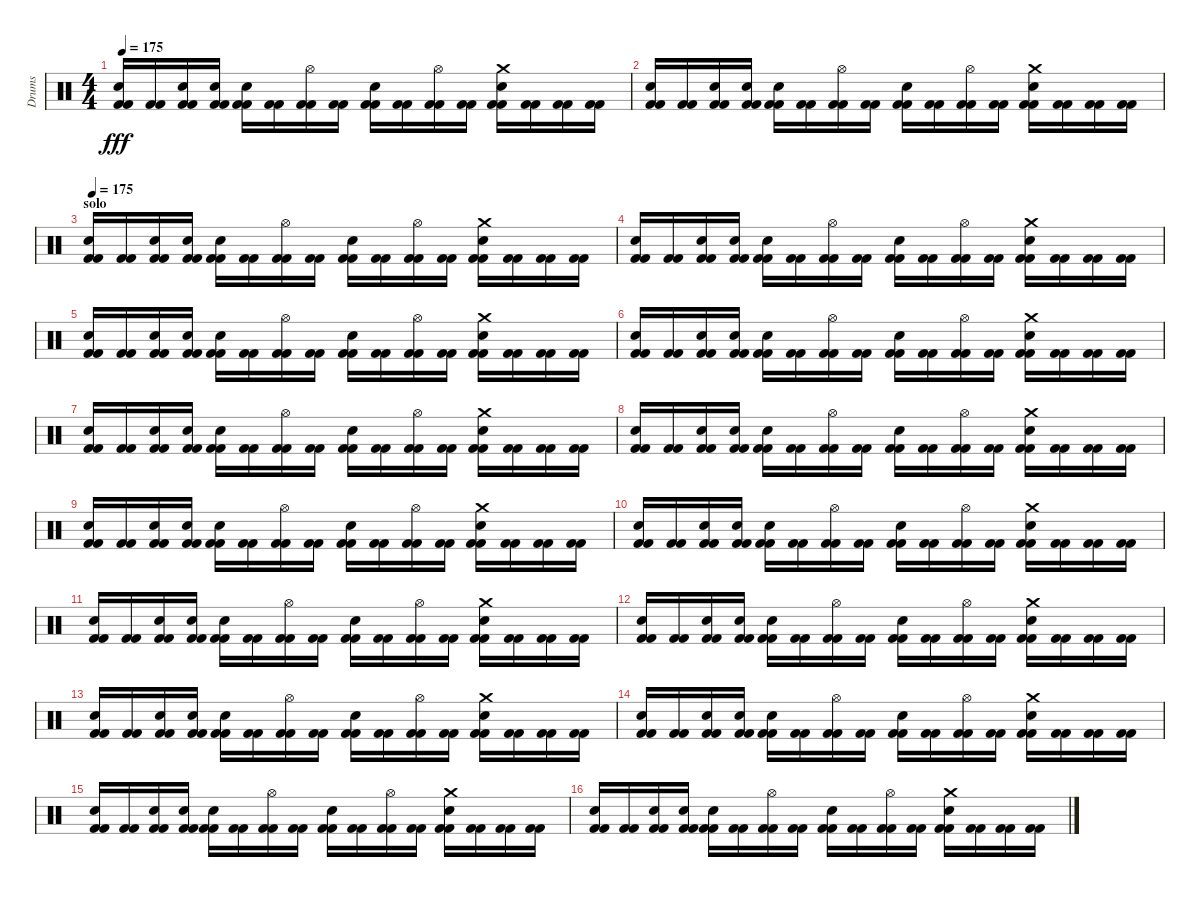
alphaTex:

\track ("Drums" "Drums") {instrument percussion}
\staff {score}
\articulation defaults
\ts (4 4)
\tempo 175
\clef neutral
\ks c
("Electric Snare (hit)" "Kick (hit) 2" "Kick (hit) 2").16{dy fff} ("Kick (hit) 2" "Kick (hit) 2").16 ("Electric Snare (hit)" "Kick (hit) 2" "Kick (hit) 2").16 ("Electric Snare (hit)" "Kick (hit) 2" "Kick (hit) 2").16 ("Electric Snare (hit)" "Kick (hit) 2" "Kick (hit) 2").16 ("Kick (hit) 2" "Kick (hit) 2").16 ("Hi-Hat (open)" "Kick (hit) 2" "Kick (hit) 2").16 ("Kick (hit) 2" "Kick (hit) 2").16 ("Electric Snare (hit)" "Kick (hit) 2" "Kick (hit) 2").16 ("Kick (hit) 2" "Kick (hit) 2").16 ("Hi-Hat (open)" "Kick (hit) 2" "Kick (hit) 2").16 ("Kick (hit) 2" "Kick (hit) 2").16 ("Crash medium (hit)" "Electric Snare (hit)" "Kick (hit) 2" "Kick (hit) 2").16 ("Kick (hit) 2" "Kick (hit) 2").16 ("Kick (hit) 2" "Kick (hit) 2").16 ("Kick (hit) 2" "Kick (hit) 2").16 |
("Electric Snare (hit)" "Kick (hit) 2" "Kick (hit) 2").16 ("Kick (hit) 2" "Kick (hit) 2").16 ("Electric Snare (hit)" "Kick (hit) 2" "Kick (hit) 2").16 ("Electric Snare (hit)" "Kick (hit) 2" "Kick (hit) 2").16 ("Electric Snare (hit)" "Kick (hit) 2" "Kick (hit) 2").16 ("Kick (hit) 2" "Kick (hit) 2").16 ("Hi-Hat (open)" "Kick (hit) 2" "Kick (hit) 2").16 ("Kick (hit) 2" "Kick (hit) 2").16 ("Electric Snare (hit)" "Kick (hit) 2" "Kick (hit) 2").16 ("Kick (hit) 2" "Kick (hit) 2").16 ("Hi-Hat (open)" "Kick (hit) 2" "Kick (hit) 2").16 ("Kick (hit) 2" "Kick (hit) 2").16 ("Crash medium (hit)" "Electric Snare (hit)" "Kick (hit) 2" "Kick (hit) 2").16 ("Kick (hit) 2" "Kick (hit) 2").16 ("Kick (hit) 2" "Kick (hit) 2").16 ("Kick (hit) 2" "Kick (hit) 2").16 |
\section ("" "solo")
\tempo 175
("Electric Snare (hit)" "Kick (hit) 2" "Kick (hit) 2").16 ("Kick (hit) 2" "Kick (hit) 2").16 ("Electric Snare (hit)" "Kick (hit) 2" "Kick (hit) 2").16 ("Electric Snare (hit)" "Kick (hit) 2" "Kick (hit) 2").16 ("Electric Snare (hit)" "Kick (hit) 2" "Kick (hit) 2").16 ("Kick (hit) 2" "Kick (hit) 2").16 ("Hi-Hat (open)" "Kick (hit) 2" "Kick (hit) 2").16 ("Kick (hit) 2" "Kick (hit) 2").16 ("Electric Snare (hit)" "Kick (hit) 2" "Kick (hit) 2").16 ("Kick (hit) 2" "Kick (hit) 2").16 ("Hi-Hat (open)" "Kick (hit) 2" "Kick (hit) 2").16 ("Kick (hit) 2" "Kick (hit) 2").16 ("Crash medium (hit)" "Electric Snare (hit)" "Kick (hit) 2" "Kick (hit) 2").16 ("Kick (hit) 2" "Kick (hit) 2").16 ("Kick (hit) 2" "Kick (hit) 2").16 ("Kick (hit) 2" "Kick (hit) 2").16 |
("Electric Snare (hit)" "Kick (hit) 2" "Kick (hit) 2").16 ("Kick (hit) 2" "Kick (hit) 2").16 ("Electric Snare (hit)" "Kick (hit) 2" "Kick (hit) 2").16 ("Electric Snare (hit)" "Kick (hit) 2" "Kick (hit) 2").16 ("Electric Snare (hit)" "Kick (hit) 2" "Kick (hit) 2").16 ("Kick (hit) 2" "Kick (hit) 2").16 ("Hi-Hat (open)" "Kick (hit) 2" "Kick (hit) 2").16 ("Kick (hit) 2" "Kick (hit) 2").16 ("Electric Snare (hit)" "Kick (hit) 2" "Kick (hit) 2").16 ("Kick (hit) 2" "Kick (hit) 2").16 ("Hi-Hat (open)" "Kick (hit) 2" "Kick (hit) 2").16 ("Kick (hit) 2" "Kick (hit) 2").16 ("Crash medium (hit)" "Electric Snare (hit)" "Kick (hit) 2" "Kick (hit) 2").16 ("Kick (hit) 2" "Kick (hit) 2").16 ("Kick (hit) 2" "Kick (hit) 2").16 ("Kick (hit) 2" "Kick (hit) 2").16 |
("Electric Snare (hit)" "Kick (hit) 2" "Kick (hit) 2").16 ("Kick (hit) 2" "Kick (hit) 2").16 ("Electric Snare (hit)" "Kick (hit) 2" "Kick (hit) 2").16 ("Electric Snare (hit)" "Kick (hit) 2" "Kick (hit) 2").16 ("Electric Snare (hit)" "Kick (hit) 2" "Kick (hit) 2").16 ("Kick (hit) 2" "Kick (hit) 2").16 ("Hi-Hat (open)" "Kick (hit) 2" "Kick (hit) 2").16 ("Kick (hit) 2" "Kick (hit) 2").16 ("Electric Snare (hit)" "Kick (hit) 2" "Kick (hit) 2").16 ("Kick (hit) 2" "Kick (hit) 2").16 ("Hi-Hat (open)" "Kick (hit) 2" "Kick (hit) 2").16 ("Kick (hit) 2" "Kick (hit) 2").16 ("Crash medium (hit)" "Electric Snare (hit)" "Kick (hit) 2" "Kick (hit) 2").16 ("Kick (hit) 2" "Kick (hit) 2").16 ("Kick (hit) 2" "Kick (hit) 2").16 ("Kick (hit) 2" "Kick (hit) 2").16 |
("Electric Snare (hit)" "Kick (hit) 2" "Kick (hit) 2").16 ("Kick (hit) 2" "Kick (hit) 2").16 ("Electric Snare (hit)" "Kick (hit) 2" "Kick (hit) 2").16 ("Electric Snare (hit)" "Kick (hit) 2" "Kick (hit) 2").16 ("Electric Snare (hit)" "Kick (hit) 2" "Kick (hit) 2").16 ("Kick (hit) 2" "Kick (hit) 2").16 ("Hi-Hat (open)" "Kick (hit) 2" "Kick (hit) 2").16 ("Kick (hit) 2" "Kick (hit) 2").16 ("Electric Snare (hit)" "Kick (hit) 2" "Kick (hit) 2").16 ("Kick (hit) 2" "Kick (hit) 2").16 ("Hi-Hat (open)" "Kick (hit) 2" "Kick (hit) 2").16 ("Kick (hit) 2" "Kick (hit) 2").16 ("Crash medium (hit)" "Electric Snare (hit)" "Kick (hit) 2" "Kick (hit) 2").16 ("Kick (hit) 2" "Kick (hit) 2").16 ("Kick (hit) 2" "Kick (hit) 2").16 ("Kick (hit) 2" "Kick (hit) 2").16 |
("Electric Snare (hit)" "Kick (hit) 2" "Kick (hit) 2").16 ("Kick (hit) 2" "Kick (hit) 2").16 ("Electric Snare (hit)" "Kick (hit) 2" "Kick (hit) 2").16 ("Electric Snare (hit)" "Kick (hit) 2" "Kick (hit) 2").16 ("Electric Snare (hit)" "Kick (hit) 2" "Kick (hit) 2").16 ("Kick (hit) 2" "Kick (hit) 2").16 ("Hi-Hat (open)" "Kick (hit) 2" "Kick (hit) 2").16 ("Kick (hit) 2" "Kick (hit) 2").16 ("Electric Snare (hit)" "Kick (hit) 2" "Kick (hit) 2").16 ("Kick (hit) 2" "Kick (hit) 2").16 ("Hi-Hat (open)" "Kick (hit) 2" "Kick (hit) 2").16 ("Kick (hit) 2" "Kick (hit) 2").16 ("Crash medium (hit)" "Electric Snare (hit)" "Kick (hit) 2" "Kick (hit) 2").16 ("Kick (hit) 2" "Kick (hit) 2").16 ("Kick (hit) 2" "Kick (hit) 2").16 ("Kick (hit) 2" "Kick (hit) 2").16 |
("Electric Snare (hit)" "Kick (hit) 2" "Kick (hit) 2").16 ("Kick (hit) 2" "Kick (hit) 2").16 ("Electric Snare (hit)" "Kick (hit) 2" "Kick (hit) 2").16 ("Electric Snare (hit)" "Kick (hit) 2" "Kick (hit) 2").16 ("Electric Snare (hit)" "Kick (hit) 2" "Kick (hit) 2").16 ("Kick (hit) 2" "Kick (hit) 2").16 ("Hi-Hat (open)" "Kick (hit) 2" "Kick (hit) 2").16 ("Kick (hit) 2" "Kick (hit) 2").16 ("Electric Snare (hit)" "Kick (hit) 2" "Kick (hit) 2").16 ("Kick (hit) 2" "Kick (hit) 2").16 ("Hi-Hat (open)" "Kick (hit) 2" "Kick (hit) 2").16 ("Kick (hit) 2" "Kick (hit) 2").16 ("Crash medium (hit)" "Electric Snare (hit)" "Kick (hit) 2" "Kick (hit) 2").16 ("Kick (hit) 2" "Kick (hit) 2").16 ("Kick (hit) 2" "Kick (hit) 2").16 ("Kick (hit) 2" "Kick (hit) 2").16 |
("Electric Snare (hit)" "Kick (hit) 2" "Kick (hit) 2").16 ("Kick (hit) 2" "Kick (hit) 2").16 ("Electric Snare (hit)" "Kick (hit) 2" "Kick (hit) 2").16 ("Electric Snare (hit)" "Kick (hit) 2" "Kick (hit) 2").16 ("Electric Snare (hit)" "Kick (hit) 2" "Kick (hit) 2").16 ("Kick (hit) 2" "Kick (hit) 2").16 ("Hi-Hat (open)" "Kick (hit) 2" "Kick (hit) 2").16 ("Kick (hit) 2" "Kick (hit) 2").16 ("Electric Snare (hit)" "Kick (hit) 2" "Kick (hit) 2").16 ("Kick (hit) 2" "Kick (hit) 2").16 ("Hi-Hat (open)" "Kick (hit) 2" "Kick (hit) 2").16 ("Kick (hit) 2" "Kick (hit) 2").16 ("Crash medium (hit)" "Electric Snare (hit)" "Kick (hit) 2" "Kick (hit) 2").16 ("Kick (hit) 2" "Kick (hit) 2").16 ("Kick (hit) 2" "Kick (hit) 2").16 ("Kick (hit) 2" "Kick (hit) 2").16 |
("Electric Snare (hit)" "Kick (hit) 2" "Kick (hit) 2").16 ("Kick (hit) 2" "Kick (hit) 2").16 ("Electric Snare (hit)" "Kick (hit) 2" "Kick (hit) 2").16 ("Electric Snare (hit)" "Kick (hit) 2" "Kick (hit) 2").16 ("Electric Snare (hit)" "Kick (hit) 2" "Kick (hit) 2").16 ("Kick (hit) 2" "Kick (hit) 2").16 ("Hi-Hat (open)" "Kick (hit) 2" "Kick (hit) 2").16 ("Kick (hit) 2" "Kick (hit) 2").16 ("Electric Snare (hit)" "Kick (hit) 2" "Kick (hit) 2").16 ("Kick (hit) 2" "Kick (hit) 2").16 ("Hi-Hat (open)" "Kick (hit) 2" "Kick (hit) 2").16 ("Kick (hit) 2" "Kick (hit) 2").16 ("Crash medium (hit)" "Electric Snare (hit)" "Kick (hit) 2" "Kick (hit) 2").16 ("Kick (hit) 2" "Kick (hit) 2").16 ("Kick (hit) 2" "Kick (hit) 2").16 ("Kick (hit) 2" "Kick (hit) 2").16 |
("Electric Snare (hit)" "Kick (hit) 2" "Kick (hit) 2").16 ("Kick (hit) 2" "Kick (hit) 2").16 ("Electric Snare (hit)" "Kick (hit) 2" "Kick (hit) 2").16 ("Electric Snare (hit)" "Kick (hit) 2" "Kick (hit) 2").16 ("Electric Snare (hit)" "Kick (hit) 2" "Kick (hit) 2").16 ("Kick (hit) 2" "Kick (hit) 2").16 ("Hi-Hat (open)" "Kick (hit) 2" "Kick (hit) 2").16 ("Kick (hit) 2" "Kick (hit) 2").16 ("Electric Snare (hit)" "Kick (hit) 2" "Kick (hit) 2").16 ("Kick (hit) 2" "Kick (hit) 2").16 ("Hi-Hat (open)" "Kick (hit) 2" "Kick (hit) 2").16 ("Kick (hit) 2" "Kick (hit) 2").16 ("Crash medium (hit)" "Electric Snare (hit)" "Kick (hit) 2" "Kick (hit) 2").16 ("Kick (hit) 2" "Kick (hit) 2").16 ("Kick (hit) 2" "Kick (hit) 2").16 ("Kick (hit) 2" "Kick (hit) 2").16 |
("Electric Snare (hit)" "Kick (hit) 2" "Kick (hit) 2").16 ("Kick (hit) 2" "Kick (hit) 2").16 ("Electric Snare (hit)" "Kick (hit) 2" "Kick (hit) 2").16 ("Electric Snare (hit)" "Kick (hit) 2" "Kick (hit) 2").16 ("Electric Snare (hit)" "Kick (hit) 2" "Kick (hit) 2").16 ("Kick (hit) 2" "Kick (hit) 2").16 ("Hi-Hat (open)" "Kick (hit) 2" "Kick (hit) 2").16 ("Kick (hit) 2" "Kick (hit) 2").16 ("Electric Snare (hit)" "Kick (hit) 2" "Kick (hit) 2").16 ("Kick (hit) 2" "Kick (hit) 2").16 ("Hi-Hat (open)" "Kick (hit) 2" "Kick (hit) 2").16 ("Kick (hit) 2" "Kick (hit) 2").16 ("Crash medium (hit)" "Electric Snare (hit)" "Kick (hit) 2" "Kick (hit) 2").16 ("Kick (hit) 2" "Kick (hit) 2").16 ("Kick (hit) 2" "Kick (hit) 2").16 ("Kick (hit) 2" "Kick (hit) 2").16 |
("Electric Snare (hit)" "Kick (hit) 2" "Kick (hit) 2").16 ("Kick (hit) 2" "Kick (hit) 2").16 ("Electric Snare (hit)" "Kick (hit) 2" "Kick (hit) 2").16 ("Electric Snare (hit)" "Kick (hit) 2" "Kick (hit) 2").16 ("Electric Snare (hit)" "Kick (hit) 2" "Kick (hit) 2").16 ("Kick (hit) 2" "Kick (hit) 2").16 ("Hi-Hat (open)" "Kick (hit) 2" "Kick (hit) 2").16 ("Kick (hit) 2" "Kick (hit) 2").16 ("Electric Snare (hit)" "Kick (hit) 2" "Kick (hit) 2").16 ("Kick (hit) 2" "Kick (hit) 2").16 ("Hi-Hat (open)" "Kick (hit) 2" "Kick (hit) 2").16 ("Kick (hit) 2" "Kick (hit) 2").16 ("Crash medium (hit)" "Electric Snare (hit)" "Kick (hit) 2" "Kick (hit) 2").16 ("Kick (hit) 2" "Kick (hit) 2").16 ("Kick (hit) 2" "Kick (hit) 2").16 ("Kick (hit) 2" "Kick (hit) 2").16 |
("Electric Snare (hit)" "Kick (hit) 2" "Kick (hit) 2").16 ("Kick (hit) 2" "Kick (hit) 2").16 ("Electric Snare (hit)" "Kick (hit) 2" "Kick (hit) 2").16 ("Electric Snare (hit)" "Kick (hit) 2" "Kick (hit) 2").16 ("Electric Snare (hit)" "Kick (hit) 2" "Kick (hit) 2").16 ("Kick (hit) 2" "Kick (hit) 2").16 ("Hi-Hat (open)" "Kick (hit) 2" "Kick (hit) 2").16 ("Kick (hit) 2" "Kick (hit) 2").16 ("Electric Snare (hit)" "Kick (hit) 2" "Kick (hit) 2").16 ("Kick (hit) 2" "Kick (hit) 2").16 ("Hi-Hat (open)" "Kick (hit) 2" "Kick (hit) 2").16 ("Kick (hit) 2" "Kick (hit) 2").16 ("Crash medium (hit)" "Electric Snare (hit)" "Kick (hit) 2" "Kick (hit) 2").16 ("Kick (hit) 2" "Kick (hit) 2").16 ("Kick (hit) 2" "Kick (hit) 2").16 ("Kick (hit) 2" "Kick (hit) 2").16 |
("Electric Snare (hit)" "Kick (hit) 2" "Kick (hit) 2").16 ("Kick (hit) 2" "Kick (hit) 2").16 ("Electric Snare (hit)" "Kick (hit) 2" "Kick (hit) 2").16 ("Electric Snare (hit)" "Kick (hit) 2" "Kick (hit) 2").16 ("Electric Snare (hit)" "Kick (hit) 2" "Kick (hit) 2").16 ("Kick (hit) 2" "Kick (hit) 2").16 ("Hi-Hat (open)" "Kick (hit) 2" "Kick (hit) 2").16 ("Kick (hit) 2" "Kick (hit) 2").16 ("Electric Snare (hit)" "Kick (hit) 2" "Kick (hit) 2").16 ("Kick (hit) 2" "Kick (hit) 2").16 ("Hi-Hat (open)" "Kick (hit) 2" "Kick (hit) 2").16 ("Kick (hit) 2" "Kick (hit) 2").16 ("Crash medium (hit)" "Electric Snare (hit)" "Kick (hit) 2" "Kick (hit) 2").16 ("Kick (hit) 2" "Kick (hit) 2").16 ("Kick (hit) 2" "Kick (hit) 2").16 ("Kick (hit) 2" "Kick (hit) 2").16 |
("Electric Snare (hit)" "Kick (hit) 2" "Kick (hit) 2").16 ("Kick (hit) 2" "Kick (hit) 2").16 ("Electric Snare (hit)" "Kick (hit) 2" "Kick (hit) 2").16 ("Electric Snare (hit)" "Kick (hit) 2" "Kick (hit) 2").16 ("Electric Snare (hit)" "Kick (hit) 2" "Kick (hit) 2").16 ("Kick (hit) 2" "Kick (hit) 2").16 ("Hi-Hat (open)" "Kick (hit) 2" "Kick (hit) 2").16 ("Kick (hit) 2" "Kick (hit) 2").16 ("Electric Snare (hit)" "Kick (hit) 2" "Kick (hit) 2").16 ("Kick (hit) 2" "Kick (hit) 2").16 ("Hi-Hat (open)" "Kick (hit) 2" "Kick (hit) 2").16 ("Kick (hit) 2" "Kick (hit) 2").16 ("Crash medium (hit)" "Electric Snare (hit)" "Kick (hit) 2" "Kick (hit) 2").16 ("Kick (hit) 2" "Kick (hit) 2").16 ("Kick (hit) 2" "Kick (hit) 2").16 ("Kick (hit) 2" "Kick (hit) 2").16
